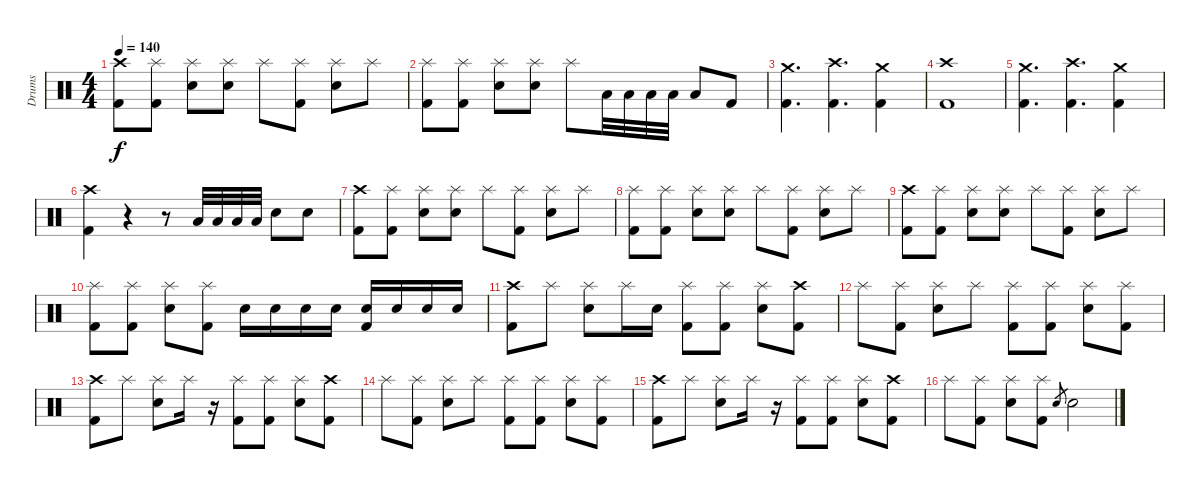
\track ("Drums" "Drums") {instrument percussion}
\staff {score}
\articulation defaults
\ts (4 4)
\tempo 140
\clef neutral
\ks c
("Crash high (hit)" "Kick (hit) 2").8{dy f} ("Splash (hit)" "Kick (hit) 2").8 ("Splash (hit)" "Snare (hit) 2").8 ("Splash (hit)" "Snare (hit) 2").8 "Splash (hit)".8 ("Splash (hit)" "Kick (hit) 2").8 ("Splash (hit)" "Snare (hit) 2").8 "Splash (hit)".8 |
("Splash (hit)" "Kick (hit) 2").8 ("Splash (hit)" "Kick (hit) 2").8 ("Splash (hit)" "Snare (hit) 2").8 ("Splash (hit)" "Snare (hit) 2").8 "Splash (hit)".8 "Low Tom (hit)".32 "Low Tom (hit)".32 "Low Tom (hit)".32 "Low Tom (hit)".32 "Low Tom (hit)".8 "Kick (hit) 2".8 |
("Crash medium (hit)" "Kick (hit) 2").4{d} ("Crash high (hit)" "Kick (hit) 2").4{d} ("Crash medium (hit)" "Kick (hit) 2").4 |
("Crash high (hit)" "Kick (hit) 2").1 |
("Crash medium (hit)" "Kick (hit) 2").4{d} ("Crash high (hit)" "Kick (hit) 2").4{d} ("Crash medium (hit)" "Kick (hit) 2").4 |
("Crash high (hit)" "Kick (hit) 2").4 r.4 r.8 "Low Tom (hit)".32 "Low Tom (hit)".32 "Low Tom (hit)".32 "Low Tom (hit)".32 "Snare (hit) 2".8 "Snare (hit) 2".8 |
("Crash high (hit)" "Kick (hit) 2").8 ("Splash (hit)" "Kick (hit) 2").8 ("Splash (hit)" "Snare (hit) 2").8 ("Splash (hit)" "Snare (hit) 2").8 "Splash (hit)".8 ("Splash (hit)" "Kick (hit) 2").8 ("Splash (hit)" "Snare (hit) 2").8 "Splash (hit)".8 |
("Splash (hit)" "Kick (hit) 2").8 ("Splash (hit)" "Kick (hit) 2").8 ("Splash (hit)" "Snare (hit) 2").8 ("Splash (hit)" "Snare (hit) 2").8 "Splash (hit)".8 ("Splash (hit)" "Kick (hit) 2").8 ("Splash (hit)" "Snare (hit) 2").8 "Splash (hit)".8 |
("Crash high (hit)" "Kick (hit) 2").8 ("Splash (hit)" "Kick (hit) 2").8 ("Splash (hit)" "Snare (hit) 2").8 ("Splash (hit)" "Snare (hit) 2").8 "Splash (hit)".8 ("Splash (hit)" "Kick (hit) 2").8 ("Splash (hit)" "Snare (hit) 2").8 "Splash (hit)".8 |
("Splash (hit)" "Kick (hit) 2").8 ("Splash (hit)" "Kick (hit) 2").8 ("Splash (hit)" "Snare (hit) 2").8 ("Splash (hit)" "Kick (hit) 2").8 "Snare (hit) 2".16 "Snare (hit) 2".16 "Snare (hit) 2".16 "Snare (hit) 2".16 ("Snare (hit) 2" "Kick (hit) 2").16 "Snare (hit) 2".16 "Snare (hit) 2".16 "Snare (hit) 2".16 |
("Crash high (hit)" "Kick (hit) 2").8 "Splash (hit)".8 ("Splash (hit)" "Snare (hit) 2").8 "Splash (hit)".16 "Snare (hit) 2".16 ("Splash (hit)" "Kick (hit) 2").8 ("Splash (hit)" "Kick (hit) 2").8 ("Splash (hit)" "Snare (hit) 2").8 ("Crash high (hit)" "Kick (hit) 2").8 |
"Splash (hit)".8 ("Splash (hit)" "Kick (hit) 2").8 ("Splash (hit)" "Snare (hit) 2").8 "Splash (hit)".8 ("Splash (hit)" "Kick (hit) 2").8 ("Splash (hit)" "Kick (hit) 2").8 ("Splash (hit)" "Snare (hit) 2").8 ("Splash (hit)" "Kick (hit) 2").8 |
("Crash high (hit)" "Kick (hit) 2").8 "Splash (hit)".8 ("Splash (hit)" "Snare (hit) 2").8 "Splash (hit)".16 r.16 ("Splash (hit)" "Kick (hit) 2").8 ("Splash (hit)" "Kick (hit) 2").8 ("Splash (hit)" "Snare (hit) 2").8 ("Crash high (hit)" "Kick (hit) 2").8 |
"Splash (hit)".8 ("Splash (hit)" "Kick (hit) 2").8 ("Splash (hit)" "Snare (hit) 2").8 "Splash (hit)".8 ("Splash (hit)" "Kick (hit) 2").8 ("Splash (hit)" "Kick (hit) 2").8 ("Splash (hit)" "Snare (hit) 2").8 ("Splash (hit)" "Kick (hit) 2").8 |
("Crash high (hit)" "Kick (hit) 2").8 "Splash (hit)".8 ("Splash (hit)" "Snare (hit) 2").8 "Splash (hit)".16 r.16 ("Splash (hit)" "Kick (hit) 2").8 ("Splash (hit)" "Kick (hit) 2").8 ("Splash (hit)" "Snare (hit) 2").8 ("Crash high (hit)" "Kick (hit) 2").8 |
"Splash (hit)".8 ("Splash (hit)" "Kick (hit) 2").8 ("Splash (hit)" "Snare (hit) 2").8 ("Splash (hit)" "Kick (hit) 2").8 "Snare (hit) 2".8{gr} "Snare (hit) 2".2
